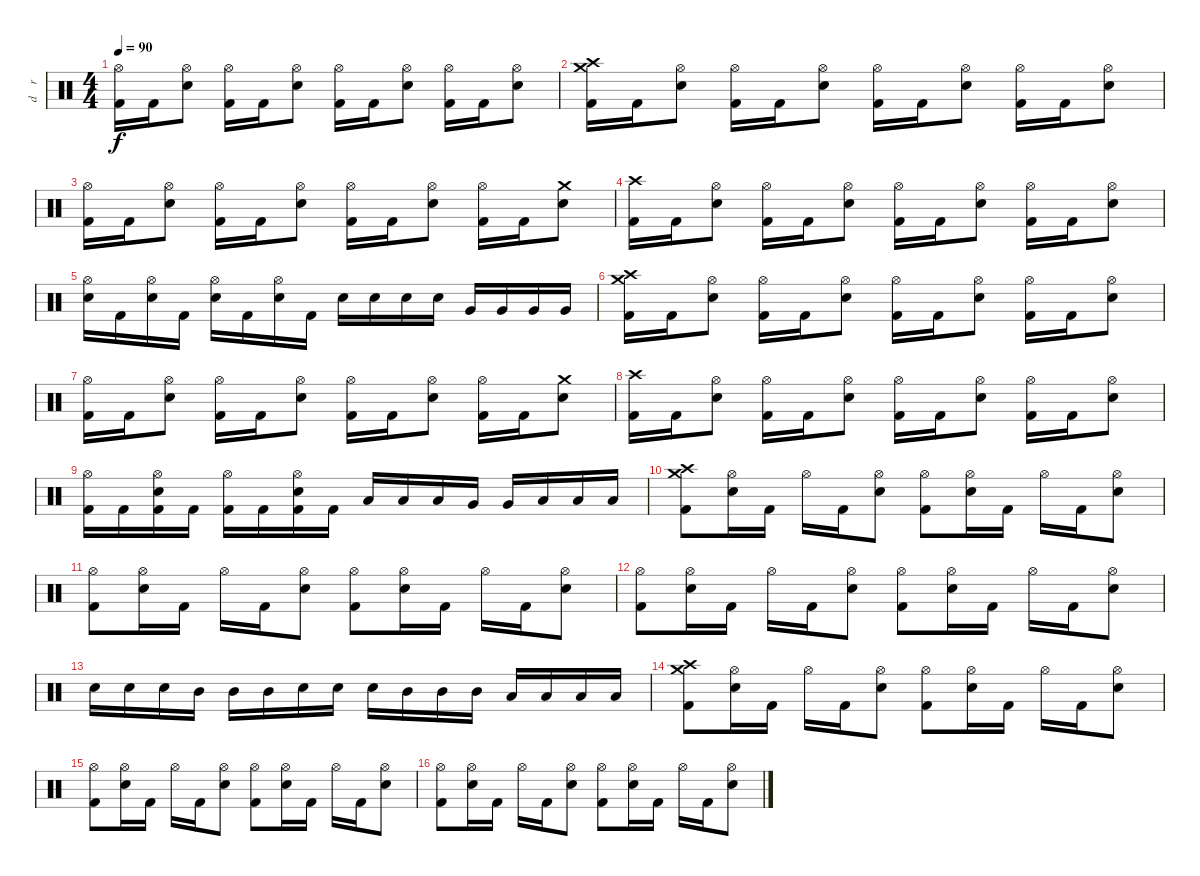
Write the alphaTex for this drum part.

\track ("d    r    u    m    s" "d    r    ") {instrument percussion}
\staff {score}
\articulation defaults
\ts (4 4)
\tempo 90
\clef neutral
\ks c
("Hi-Hat (open)" "Kick (hit) 2").16{dy f} "Kick (hit) 2".16 ("Hi-Hat (open)" "Electric Snare (hit)").8 ("Hi-Hat (open)" "Kick (hit) 2").16 "Kick (hit) 2".16 ("Hi-Hat (open)" "Electric Snare (hit)").8 ("Hi-Hat (open)" "Kick (hit) 2").16 "Kick (hit) 2".16 ("Hi-Hat (open)" "Electric Snare (hit)").8 ("Hi-Hat (open)" "Kick (hit) 2").16 "Kick (hit) 2".16 ("Hi-Hat (open)" "Electric Snare (hit)").8 |
("Crash high (hit)" "Crash medium (hit)" "Kick (hit) 2").16 "Kick (hit) 2".16 ("Hi-Hat (open)" "Electric Snare (hit)").8 ("Hi-Hat (open)" "Kick (hit) 2").16 "Kick (hit) 2".16 ("Hi-Hat (open)" "Electric Snare (hit)").8 ("Hi-Hat (open)" "Kick (hit) 2").16 "Kick (hit) 2".16 ("Hi-Hat (open)" "Electric Snare (hit)").8 ("Hi-Hat (open)" "Kick (hit) 2").16 "Kick (hit) 2".16 ("Hi-Hat (open)" "Electric Snare (hit)").8 |
("Hi-Hat (open)" "Kick (hit) 2").16 "Kick (hit) 2".16 ("Hi-Hat (open)" "Electric Snare (hit)").8 ("Hi-Hat (open)" "Kick (hit) 2").16 "Kick (hit) 2".16 ("Hi-Hat (open)" "Electric Snare (hit)").8 ("Hi-Hat (open)" "Kick (hit) 2").16 "Kick (hit) 2".16 ("Hi-Hat (open)" "Electric Snare (hit)").8 ("Hi-Hat (open)" "Kick (hit) 2").16 "Kick (hit) 2".16 ("Crash medium (hit)" "Electric Snare (hit)").8 |
("Crash high (hit)" "Kick (hit) 2").16 "Kick (hit) 2".16 ("Hi-Hat (open)" "Electric Snare (hit)").8 ("Hi-Hat (open)" "Kick (hit) 2").16 "Kick (hit) 2".16 ("Hi-Hat (open)" "Electric Snare (hit)").8 ("Hi-Hat (open)" "Kick (hit) 2").16 "Kick (hit) 2".16 ("Hi-Hat (open)" "Electric Snare (hit)").8 ("Hi-Hat (open)" "Kick (hit) 2").16 "Kick (hit) 2".16 ("Hi-Hat (open)" "Electric Snare (hit)").8 |
("Hi-Hat (open)" "Electric Snare (hit)").16 "Kick (hit) 2".16 ("Hi-Hat (open)" "Electric Snare (hit)").16 "Kick (hit) 2".16 ("Hi-Hat (open)" "Electric Snare (hit)").16 "Kick (hit) 2".16 ("Hi-Hat (open)" "Electric Snare (hit)").16 "Kick (hit) 2".16 "Electric Snare (hit)".16 "Electric Snare (hit)".16 "Electric Snare (hit)".16 "Electric Snare (hit)".16 "Very Low Tom (hit)".16 "Very Low Tom (hit)".16 "Very Low Tom (hit)".16 "Very Low Tom (hit)".16 |
("Crash high (hit)" "Crash medium (hit)" "Kick (hit) 2").16 "Kick (hit) 2".16 ("Hi-Hat (open)" "Electric Snare (hit)").8 ("Hi-Hat (open)" "Kick (hit) 2").16 "Kick (hit) 2".16 ("Hi-Hat (open)" "Electric Snare (hit)").8 ("Hi-Hat (open)" "Kick (hit) 2").16 "Kick (hit) 2".16 ("Hi-Hat (open)" "Electric Snare (hit)").8 ("Hi-Hat (open)" "Kick (hit) 2").16 "Kick (hit) 2".16 ("Hi-Hat (open)" "Electric Snare (hit)").8 |
("Hi-Hat (open)" "Kick (hit) 2").16 "Kick (hit) 2".16 ("Hi-Hat (open)" "Electric Snare (hit)").8 ("Hi-Hat (open)" "Kick (hit) 2").16 "Kick (hit) 2".16 ("Hi-Hat (open)" "Electric Snare (hit)").8 ("Hi-Hat (open)" "Kick (hit) 2").16 "Kick (hit) 2".16 ("Hi-Hat (open)" "Electric Snare (hit)").8 ("Hi-Hat (open)" "Kick (hit) 2").16 "Kick (hit) 2".16 ("Crash medium (hit)" "Electric Snare (hit)").8 |
("Crash high (hit)" "Kick (hit) 2").16 "Kick (hit) 2".16 ("Hi-Hat (open)" "Electric Snare (hit)").8 ("Hi-Hat (open)" "Kick (hit) 2").16 "Kick (hit) 2".16 ("Hi-Hat (open)" "Electric Snare (hit)").8 ("Hi-Hat (open)" "Kick (hit) 2").16 "Kick (hit) 2".16 ("Hi-Hat (open)" "Electric Snare (hit)").8 ("Hi-Hat (open)" "Kick (hit) 2").16 "Kick (hit) 2".16 ("Hi-Hat (open)" "Electric Snare (hit)").8 |
("Hi-Hat (open)" "Kick (hit) 2").16 "Kick (hit) 2".16 ("Hi-Hat (open)" "Electric Snare (hit)" "Kick (hit) 2").16 "Kick (hit) 2".16 ("Hi-Hat (open)" "Kick (hit) 2").16 "Kick (hit) 2".16 ("Hi-Hat (open)" "Electric Snare (hit)" "Kick (hit) 2").16 "Kick (hit) 2".16 "Low Tom (hit)".16 "Low Tom (hit)".16 "Low Tom (hit)".16 "Very Low Tom (hit)".16 "Very Low Tom (hit)".16 "Low Floor Tom (hit)".16 "Low Floor Tom (hit)".16 "Low Floor Tom (hit)".16 |
("Crash high (hit)" "Crash medium (hit)" "Kick (hit) 2").8 ("Hi-Hat (open)" "Electric Snare (hit)").16 "Kick (hit) 2".16 "Hi-Hat (open)".16 "Kick (hit) 2".16 ("Hi-Hat (open)" "Electric Snare (hit)").8 ("Hi-Hat (open)" "Kick (hit) 2").8 ("Hi-Hat (open)" "Electric Snare (hit)").16 "Kick (hit) 2".16 "Hi-Hat (open)".16 "Kick (hit) 2".16 ("Hi-Hat (open)" "Electric Snare (hit)").8 |
("Hi-Hat (open)" "Kick (hit) 2").8 ("Hi-Hat (open)" "Electric Snare (hit)").16 "Kick (hit) 2".16 "Hi-Hat (open)".16 "Kick (hit) 2".16 ("Hi-Hat (open)" "Electric Snare (hit)").8 ("Hi-Hat (open)" "Kick (hit) 2").8 ("Hi-Hat (open)" "Electric Snare (hit)").16 "Kick (hit) 2".16 "Hi-Hat (open)".16 "Kick (hit) 2".16 ("Hi-Hat (open)" "Electric Snare (hit)").8 |
("Hi-Hat (open)" "Kick (hit) 2").8 ("Hi-Hat (open)" "Electric Snare (hit)").16 "Kick (hit) 2".16 "Hi-Hat (open)".16 "Kick (hit) 2".16 ("Hi-Hat (open)" "Electric Snare (hit)").8 ("Hi-Hat (open)" "Kick (hit) 2").8 ("Hi-Hat (open)" "Electric Snare (hit)").16 "Kick (hit) 2".16 "Hi-Hat (open)".16 "Kick (hit) 2".16 ("Hi-Hat (open)" "Electric Snare (hit)").8 |
"Electric Snare (hit)".16 "Electric Snare (hit)".16 "Electric Snare (hit)".16 "Mid Tom (hit)".16 "Mid Tom (hit)".16 "Mid Tom (hit)".16 "Electric Snare (hit)".16 "Electric Snare (hit)".16 "Electric Snare (hit)".16 "Mid Tom (hit)".16 "Mid Tom (hit)".16 "Mid Tom (hit)".16 "Low Tom (hit)".16 "Low Tom (hit)".16 "Low Tom (hit)".16 "Low Tom (hit)".16 |
("Crash high (hit)" "Crash medium (hit)" "Kick (hit) 2").8 ("Hi-Hat (open)" "Electric Snare (hit)").16 "Kick (hit) 2".16 "Hi-Hat (open)".16 "Kick (hit) 2".16 ("Hi-Hat (open)" "Electric Snare (hit)").8 ("Hi-Hat (open)" "Kick (hit) 2").8 ("Hi-Hat (open)" "Electric Snare (hit)").16 "Kick (hit) 2".16 "Hi-Hat (open)".16 "Kick (hit) 2".16 ("Hi-Hat (open)" "Electric Snare (hit)").8 |
("Hi-Hat (open)" "Kick (hit) 2").8 ("Hi-Hat (open)" "Electric Snare (hit)").16 "Kick (hit) 2".16 "Hi-Hat (open)".16 "Kick (hit) 2".16 ("Hi-Hat (open)" "Electric Snare (hit)").8 ("Hi-Hat (open)" "Kick (hit) 2").8 ("Hi-Hat (open)" "Electric Snare (hit)").16 "Kick (hit) 2".16 "Hi-Hat (open)".16 "Kick (hit) 2".16 ("Hi-Hat (open)" "Electric Snare (hit)").8 |
("Hi-Hat (open)" "Kick (hit) 2").8 ("Hi-Hat (open)" "Electric Snare (hit)").16 "Kick (hit) 2".16 "Hi-Hat (open)".16 "Kick (hit) 2".16 ("Hi-Hat (open)" "Electric Snare (hit)").8 ("Hi-Hat (open)" "Kick (hit) 2").8 ("Hi-Hat (open)" "Electric Snare (hit)").16 "Kick (hit) 2".16 "Hi-Hat (open)".16 "Kick (hit) 2".16 ("Hi-Hat (open)" "Electric Snare (hit)").8
